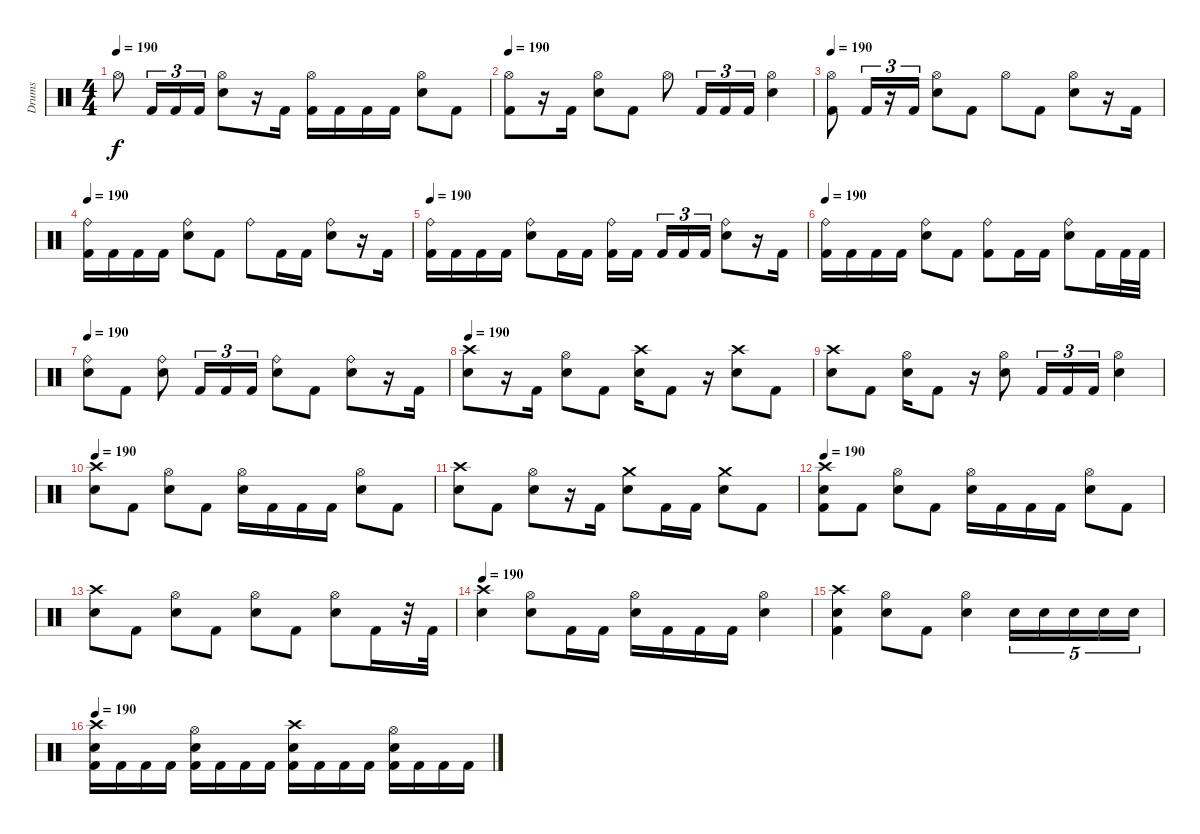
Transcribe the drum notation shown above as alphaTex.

\track ("Drums" "Drums") {instrument percussion}
\staff {score}
\articulation defaults
\ts (4 4)
\tempo 190
\clef neutral
\ks c "Hi-Hat (open)".8{dy f} "Kick (hit) 2".16{tu (3 2)} "Kick (hit) 2".16{tu (3 2)} "Kick (hit) 2".16{tu (3 2)}
("Hi-Hat (open)" "Electric Snare (hit)").8 r.16 "Kick (hit) 2".16 ("Hi-Hat (open)" "Kick (hit) 2").16 "Kick (hit) 2".16 "Kick (hit) 2".16 "Kick (hit) 2".16 ("Hi-Hat (open)" "Electric Snare (hit)").8 "Kick (hit) 2".8 |
\tempo 190
("Hi-Hat (open)" "Kick (hit) 2").8 r.16 "Kick (hit) 2".16 ("Hi-Hat (open)" "Electric Snare (hit)").8 "Kick (hit) 2".8 "Hi-Hat (open)".8 "Kick (hit) 2".16{tu (3 2)} "Kick (hit) 2".16{tu (3 2)} "Kick (hit) 2".16{tu (3 2)} ("Hi-Hat (open)" "Electric Snare (hit)").4 |
\tempo 190
("Hi-Hat (open)" "Kick (hit) 2").8 "Kick (hit) 2".16{tu (3 2)} r.16{tu (3 2)} "Kick (hit) 2".16{tu (3 2)} ("Hi-Hat (open)" "Electric Snare (hit)").8 "Kick (hit) 2".8 "Hi-Hat (open)".8 "Kick (hit) 2".8 ("Hi-Hat (open)" "Electric Snare (hit)").8 r.16 "Kick (hit) 2".16 |
\tempo 190
("Ride (bell)" "Kick (hit) 2").16 "Kick (hit) 2".16 "Kick (hit) 2".16 "Kick (hit) 2".16 ("Ride (bell)" "Electric Snare (hit)").8 "Kick (hit) 2".8 "Ride (bell)".8 "Kick (hit) 2".16 "Kick (hit) 2".16 ("Ride (bell)" "Electric Snare (hit)").8 r.16 "Kick (hit) 2".16 |
\tempo 190
("Ride (bell)" "Kick (hit) 2").16 "Kick (hit) 2".16 "Kick (hit) 2".16 "Kick (hit) 2".16 ("Ride (bell)" "Electric Snare (hit)").8 "Kick (hit) 2".16 "Kick (hit) 2".16 ("Ride (bell)" "Kick (hit) 2").16 "Kick (hit) 2".16 "Kick (hit) 2".16{tu (3 2)} "Kick (hit) 2".16{tu (3 2)} "Kick (hit) 2".16{tu (3 2)} ("Ride (bell)" "Electric Snare (hit)").8 r.16 "Kick (hit) 2".16 |
\tempo 190
("Ride (bell)" "Kick (hit) 2").16 "Kick (hit) 2".16 "Kick (hit) 2".16 "Kick (hit) 2".16 ("Ride (bell)" "Electric Snare (hit)").8 "Kick (hit) 2".8 ("Ride (bell)" "Kick (hit) 2").8 "Kick (hit) 2".16 "Kick (hit) 2".16 ("Ride (bell)" "Electric Snare (hit)").8 "Kick (hit) 2".16 "Kick (hit) 2".32 "Kick (hit) 2".32 |
\tempo 190
("Ride (bell)" "Electric Snare (hit)").8 "Kick (hit) 2".8 ("Ride (bell)" "Electric Snare (hit)").8 "Kick (hit) 2".16{tu (3 2)} "Kick (hit) 2".16{tu (3 2)} "Kick (hit) 2".16{tu (3 2)} ("Ride (bell)" "Electric Snare (hit)").8 "Kick (hit) 2".8 ("Ride (bell)" "Electric Snare (hit)").8 r.16 "Kick (hit) 2".16 |
\tempo 190
("Crash high (hit)" "Electric Snare (hit)").8 r.16 "Kick (hit) 2".16 ("Hi-Hat (open)" "Electric Snare (hit)").8 "Kick (hit) 2".8 ("Crash high (hit)" "Electric Snare (hit)").16 "Kick (hit) 2".8 r.16 ("Crash high (hit)" "Electric Snare (hit)").8 "Kick (hit) 2".8 |
("Crash high (hit)" "Electric Snare (hit)").8 "Kick (hit) 2".8 ("Hi-Hat (open)" "Electric Snare (hit)").16 "Kick (hit) 2".8 r.16 ("Hi-Hat (open)" "Electric Snare (hit)").8 "Kick (hit) 2".16{tu (3 2)} "Kick (hit) 2".16{tu (3 2)} "Kick (hit) 2".16{tu (3 2)} ("Hi-Hat (open)" "Electric Snare (hit)").4 |
\tempo 190
("Crash high (hit)" "Electric Snare (hit)").8 "Kick (hit) 2".8 ("Hi-Hat (open)" "Electric Snare (hit)").8 "Kick (hit) 2".8 ("Hi-Hat (open)" "Electric Snare (hit)").16 "Kick (hit) 2".16 "Kick (hit) 2".16 "Kick (hit) 2".16 ("Hi-Hat (open)" "Electric Snare (hit)").8 "Kick (hit) 2".8 |
("Crash high (hit)" "Electric Snare (hit)").8 "Kick (hit) 2".8 ("Hi-Hat (open)" "Electric Snare (hit)").8 r.16 "Kick (hit) 2".16 ("Crash medium (hit)" "Electric Snare (hit)").8 "Kick (hit) 2".16 "Kick (hit) 2".16 ("Crash medium (hit)" "Electric Snare (hit)").8 "Kick (hit) 2".8 |
\tempo 190
("Crash high (hit)" "Electric Snare (hit)" "Kick (hit) 2").8 "Kick (hit) 2".8 ("Hi-Hat (open)" "Electric Snare (hit)").8 "Kick (hit) 2".8 ("Hi-Hat (open)" "Electric Snare (hit)").16 "Kick (hit) 2".16 "Kick (hit) 2".16 "Kick (hit) 2".16 ("Hi-Hat (open)" "Electric Snare (hit)").8 "Kick (hit) 2".8 |
("Crash high (hit)" "Electric Snare (hit)").8 "Kick (hit) 2".8 ("Hi-Hat (open)" "Electric Snare (hit)").8 "Kick (hit) 2".8 ("Hi-Hat (open)" "Electric Snare (hit)").8 "Kick (hit) 2".8 ("Hi-Hat (open)" "Electric Snare (hit)").8 "Kick (hit) 2".16 r.32 "Kick (hit) 2".32 |
\tempo 190
("Crash high (hit)" "Electric Snare (hit)").4 ("Hi-Hat (open)" "Electric Snare (hit)").8 "Kick (hit) 2".16 "Kick (hit) 2".16 ("Hi-Hat (open)" "Electric Snare (hit)").16 "Kick (hit) 2".16 "Kick (hit) 2".16 "Kick (hit) 2".16 ("Hi-Hat (open)" "Electric Snare (hit)").4 |
("Crash high (hit)" "Electric Snare (hit)" "Kick (hit) 2").4 ("Hi-Hat (open)" "Electric Snare (hit)").8 "Kick (hit) 2".8 ("Hi-Hat (open)" "Electric Snare (hit)").4 "Electric Snare (hit)".16{tu (5 4)} "Electric Snare (hit)".16{tu (5 4)} "Electric Snare (hit)".16{tu (5 4)} "Electric Snare (hit)".16{tu (5 4)} "Electric Snare (hit)".16{tu (5 4)} |
\tempo 190
("Crash high (hit)" "Electric Snare (hit)" "Kick (hit) 2").16 "Kick (hit) 2".16 "Kick (hit) 2".16 "Kick (hit) 2".16 ("Hi-Hat (open)" "Electric Snare (hit)" "Kick (hit) 2").16 "Kick (hit) 2".16 "Kick (hit) 2".16 "Kick (hit) 2".16 ("Crash high (hit)" "Electric Snare (hit)" "Kick (hit) 2").16 "Kick (hit) 2".16 "Kick (hit) 2".16 "Kick (hit) 2".16 ("Hi-Hat (open)" "Electric Snare (hit)" "Kick (hit) 2").16 "Kick (hit) 2".16 "Kick (hit) 2".16 "Kick (hit) 2".16
